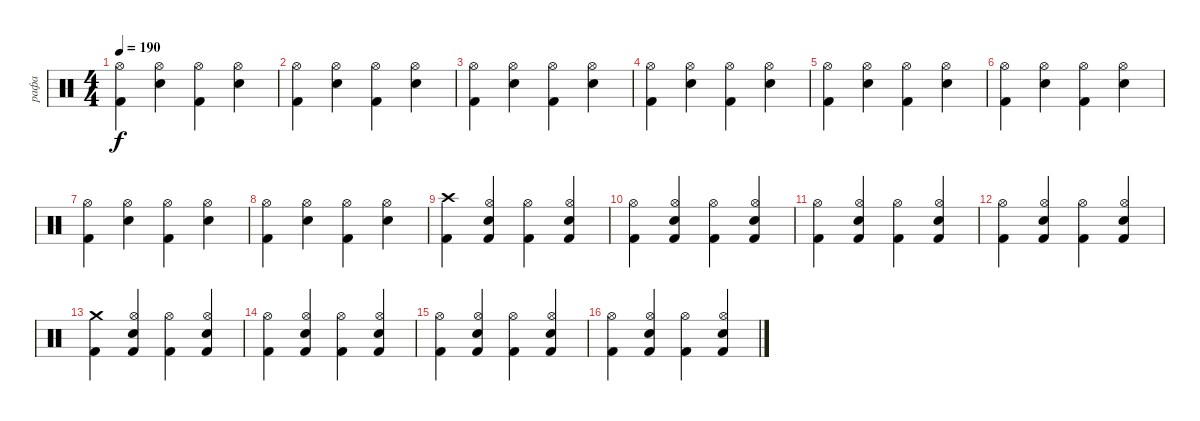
\track ("рафа" "рафа") {instrument percussion}
\staff {score}
\articulation defaults
\ts (4 4)
\tempo 190
\clef neutral
\ks c
("Kick (hit) 2" "Hi-Hat (open)").4{dy f} ("Snare (hit) 2" "Hi-Hat (open)").4 ("Kick (hit) 2" "Hi-Hat (open)").4 ("Snare (hit) 2" "Hi-Hat (open)").4 |
("Kick (hit) 2" "Hi-Hat (open)").4 ("Snare (hit) 2" "Hi-Hat (open)").4 ("Kick (hit) 2" "Hi-Hat (open)").4 ("Snare (hit) 2" "Hi-Hat (open)").4 |
("Kick (hit) 2" "Hi-Hat (open)").4 ("Snare (hit) 2" "Hi-Hat (open)").4 ("Kick (hit) 2" "Hi-Hat (open)").4 ("Snare (hit) 2" "Hi-Hat (open)").4 |
("Kick (hit) 2" "Hi-Hat (open)").4 ("Snare (hit) 2" "Hi-Hat (open)").4 ("Kick (hit) 2" "Hi-Hat (open)").4 ("Snare (hit) 2" "Hi-Hat (open)").4 |
("Kick (hit) 2" "Hi-Hat (open)").4 ("Snare (hit) 2" "Hi-Hat (open)").4 ("Kick (hit) 2" "Hi-Hat (open)").4 ("Snare (hit) 2" "Hi-Hat (open)").4 |
("Kick (hit) 2" "Hi-Hat (open)").4 ("Snare (hit) 2" "Hi-Hat (open)").4 ("Kick (hit) 2" "Hi-Hat (open)").4 ("Snare (hit) 2" "Hi-Hat (open)").4 |
("Kick (hit) 2" "Hi-Hat (open)").4 ("Snare (hit) 2" "Hi-Hat (open)").4 ("Kick (hit) 2" "Hi-Hat (open)").4 ("Snare (hit) 2" "Hi-Hat (open)").4 |
("Kick (hit) 2" "Hi-Hat (open)").4 ("Snare (hit) 2" "Hi-Hat (open)").4 ("Kick (hit) 2" "Hi-Hat (open)").4 ("Snare (hit) 2" "Hi-Hat (open)").4 |
("Kick (hit) 2" "Crash high (hit)").4 ("Kick (hit) 2" "Snare (hit) 2" "Hi-Hat (open)").4 ("Kick (hit) 2" "Hi-Hat (open)").4 ("Kick (hit) 2" "Snare (hit) 2" "Hi-Hat (open)").4 |
("Kick (hit) 2" "Hi-Hat (open)").4 ("Kick (hit) 2" "Snare (hit) 2" "Hi-Hat (open)").4 ("Kick (hit) 2" "Hi-Hat (open)").4 ("Kick (hit) 2" "Snare (hit) 2" "Hi-Hat (open)").4 |
("Kick (hit) 2" "Hi-Hat (open)").4 ("Kick (hit) 2" "Snare (hit) 2" "Hi-Hat (open)").4 ("Kick (hit) 2" "Hi-Hat (open)").4 ("Kick (hit) 2" "Snare (hit) 2" "Hi-Hat (open)").4 |
("Kick (hit) 2" "Hi-Hat (open)").4 ("Kick (hit) 2" "Snare (hit) 2" "Hi-Hat (open)").4 ("Kick (hit) 2" "Hi-Hat (open)").4 ("Kick (hit) 2" "Snare (hit) 2" "Hi-Hat (open)").4 |
("Kick (hit) 2" "Crash medium (hit)").4 ("Kick (hit) 2" "Snare (hit) 2" "Hi-Hat (open)").4 ("Kick (hit) 2" "Hi-Hat (open)").4 ("Kick (hit) 2" "Snare (hit) 2" "Hi-Hat (open)").4 |
("Kick (hit) 2" "Hi-Hat (open)").4 ("Kick (hit) 2" "Snare (hit) 2" "Hi-Hat (open)").4 ("Kick (hit) 2" "Hi-Hat (open)").4 ("Kick (hit) 2" "Snare (hit) 2" "Hi-Hat (open)").4 |
("Kick (hit) 2" "Hi-Hat (open)").4 ("Kick (hit) 2" "Snare (hit) 2" "Hi-Hat (open)").4 ("Kick (hit) 2" "Hi-Hat (open)").4 ("Kick (hit) 2" "Snare (hit) 2" "Hi-Hat (open)").4 |
("Kick (hit) 2" "Hi-Hat (open)").4 ("Kick (hit) 2" "Snare (hit) 2" "Hi-Hat (open)").4 ("Kick (hit) 2" "Hi-Hat (open)").4 ("Kick (hit) 2" "Snare (hit) 2" "Hi-Hat (open)").4
